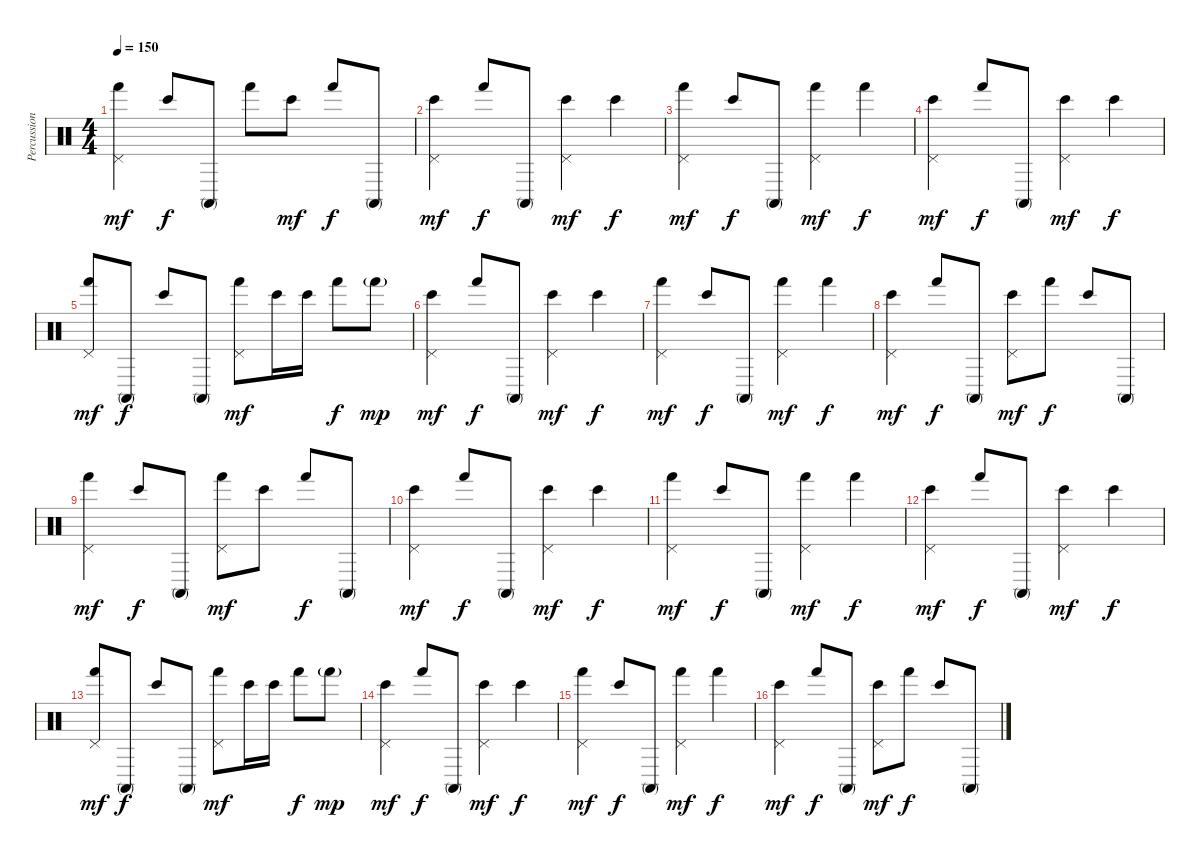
\track ("Percussions" "Percussion") {instrument percussion}
\staff {score}
\articulation defaults
\ts (4 4)
\tempo 150
\clef neutral
\ks c
("Pedal Hi-Hat (hit)" "Hand (hit)").4{dy mf} "Bongo High (hit)".8{dy f} "Conga high (mute)".8 "Hand (hit)".8 "Bongo High (hit)".8{dy mf} "Hand (hit)".8{dy f} "Conga high (mute)".8 |
("Pedal Hi-Hat (hit)" "Bongo High (hit)").4{dy mf} "Hand (hit)".8{dy f} "Conga high (mute)".8 ("Pedal Hi-Hat (hit)" "Bongo High (hit)").4{dy mf} "Bongo High (hit)".4{dy f} |
("Pedal Hi-Hat (hit)" "Hand (hit)").4{dy mf} "Bongo High (hit)".8{dy f} "Conga high (mute)".8 ("Pedal Hi-Hat (hit)" "Hand (hit)").4{dy mf} "Hand (hit)".4{dy f} |
("Pedal Hi-Hat (hit)" "Bongo High (hit)").4{dy mf} "Hand (hit)".8{dy f} "Conga high (mute)".8 ("Pedal Hi-Hat (hit)" "Bongo High (hit)").4{dy mf} "Bongo High (hit)".4{dy f} |
("Pedal Hi-Hat (hit)" "Hand (hit)").8{dy mf} "Conga high (mute)".8{dy f} "Bongo High (hit)".8 "Conga high (mute)".8 ("Pedal Hi-Hat (hit)" "Hand (hit)").8{dy mf} "Bongo High (hit)".16 "Bongo High (hit)".16 "Hand (hit)".8{dy f} "Hand (hit)"{g}.8{dy mp} |
("Pedal Hi-Hat (hit)" "Bongo High (hit)").4{dy mf} "Hand (hit)".8{dy f} "Conga high (mute)".8 ("Pedal Hi-Hat (hit)" "Bongo High (hit)").4{dy mf} "Bongo High (hit)".4{dy f} |
("Pedal Hi-Hat (hit)" "Hand (hit)").4{dy mf} "Bongo High (hit)".8{dy f} "Conga high (mute)".8 ("Pedal Hi-Hat (hit)" "Hand (hit)").4{dy mf} "Hand (hit)".4{dy f} |
("Pedal Hi-Hat (hit)" "Bongo High (hit)").4{dy mf} "Hand (hit)".8{dy f} "Conga high (mute)".8 ("Pedal Hi-Hat (hit)" "Bongo High (hit)").8{dy mf} "Hand (hit)".8{dy f} "Bongo High (hit)".8 "Conga high (mute)".8 |
("Pedal Hi-Hat (hit)" "Hand (hit)").4{dy mf} "Bongo High (hit)".8{dy f} "Conga high (mute)".8 ("Pedal Hi-Hat (hit)" "Hand (hit)").8{dy mf} "Bongo High (hit)".8 "Hand (hit)".8{dy f} "Conga high (mute)".8 |
("Pedal Hi-Hat (hit)" "Bongo High (hit)").4{dy mf} "Hand (hit)".8{dy f} "Conga high (mute)".8 ("Pedal Hi-Hat (hit)" "Bongo High (hit)").4{dy mf} "Bongo High (hit)".4{dy f} |
("Pedal Hi-Hat (hit)" "Hand (hit)").4{dy mf} "Bongo High (hit)".8{dy f} "Conga high (mute)".8 ("Pedal Hi-Hat (hit)" "Hand (hit)").4{dy mf} "Hand (hit)".4{dy f} |
("Pedal Hi-Hat (hit)" "Bongo High (hit)").4{dy mf} "Hand (hit)".8{dy f} "Conga high (mute)".8 ("Pedal Hi-Hat (hit)" "Bongo High (hit)").4{dy mf} "Bongo High (hit)".4{dy f} |
("Pedal Hi-Hat (hit)" "Hand (hit)").8{dy mf} "Conga high (mute)".8{dy f} "Bongo High (hit)".8 "Conga high (mute)".8 ("Pedal Hi-Hat (hit)" "Hand (hit)").8{dy mf} "Bongo High (hit)".16 "Bongo High (hit)".16 "Hand (hit)".8{dy f} "Hand (hit)"{g}.8{dy mp} |
("Pedal Hi-Hat (hit)" "Bongo High (hit)").4{dy mf} "Hand (hit)".8{dy f} "Conga high (mute)".8 ("Pedal Hi-Hat (hit)" "Bongo High (hit)").4{dy mf} "Bongo High (hit)".4{dy f} |
("Pedal Hi-Hat (hit)" "Hand (hit)").4{dy mf} "Bongo High (hit)".8{dy f} "Conga high (mute)".8 ("Pedal Hi-Hat (hit)" "Hand (hit)").4{dy mf} "Hand (hit)".4{dy f} |
("Pedal Hi-Hat (hit)" "Bongo High (hit)").4{dy mf} "Hand (hit)".8{dy f} "Conga high (mute)".8 ("Pedal Hi-Hat (hit)" "Bongo High (hit)").8{dy mf} "Hand (hit)".8{dy f} "Bongo High (hit)".8 "Conga high (mute)".8
